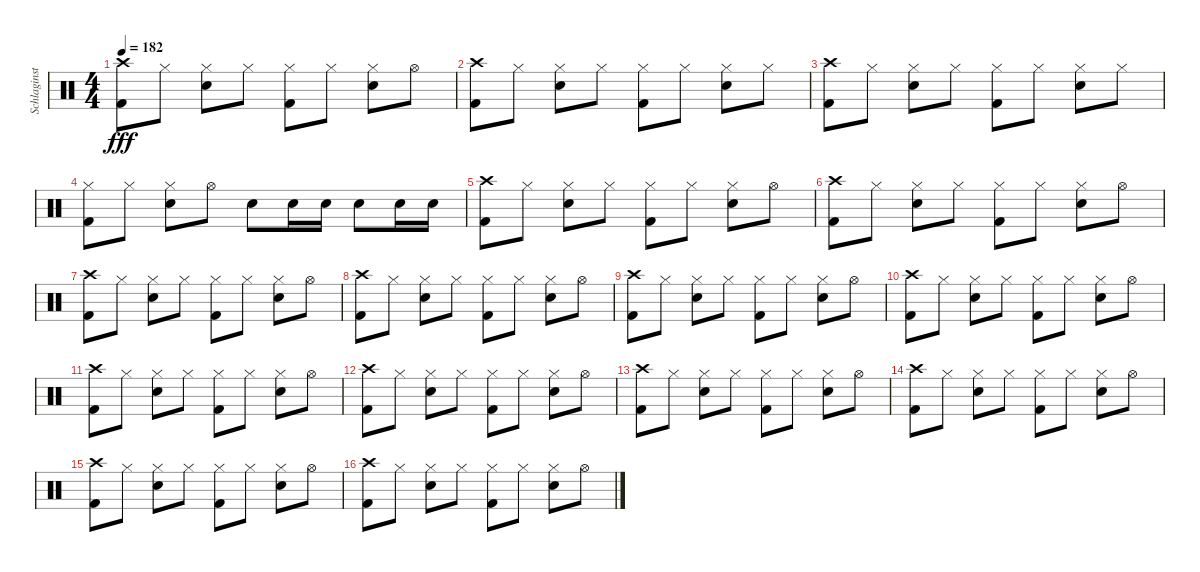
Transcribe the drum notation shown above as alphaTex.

\track ("Schlaginstrumente - Auswahl" "Schlaginst") {instrument percussion}
\staff {score}
\articulation defaults
\ts (4 4)
\tempo 182
\clef neutral
\ks c
("Kick (hit) 2" "Crash high (hit)").8{dy fff} "Hi-Hat (closed)".8 ("Snare (hit) 2" "Hi-Hat (closed)").8 "Hi-Hat (closed)".8 ("Kick (hit) 2" "Hi-Hat (closed)").8 "Hi-Hat (closed)".8 ("Snare (hit) 2" "Hi-Hat (closed)").8 "Hi-Hat (open)".8 |
("Kick (hit) 2" "Crash high (hit)").8 "Hi-Hat (closed)".8 ("Snare (hit) 2" "Hi-Hat (closed)").8 "Hi-Hat (closed)".8 ("Kick (hit) 2" "Hi-Hat (closed)").8 "Hi-Hat (closed)".8 ("Snare (hit) 2" "Hi-Hat (closed)").8 "Hi-Hat (closed)".8 |
("Kick (hit) 2" "Crash high (hit)").8 "Hi-Hat (closed)".8 ("Snare (hit) 2" "Hi-Hat (closed)").8 "Hi-Hat (closed)".8 ("Kick (hit) 2" "Hi-Hat (closed)").8 "Hi-Hat (closed)".8 ("Snare (hit) 2" "Hi-Hat (closed)").8 "Hi-Hat (closed)".8 |
("Kick (hit) 2" "Hi-Hat (closed)").8 "Hi-Hat (closed)".8 ("Snare (hit) 2" "Hi-Hat (closed)").8 "Hi-Hat (open)".8 "Snare (hit) 2".8 "Snare (hit) 2".16 "Snare (hit) 2".16 "Snare (hit) 2".8 "Snare (hit) 2".16 "Snare (hit) 2".16 |
("Kick (hit) 2" "Crash high (hit)").8 "Hi-Hat (closed)".8 ("Snare (hit) 2" "Hi-Hat (closed)").8 "Hi-Hat (closed)".8 ("Kick (hit) 2" "Hi-Hat (closed)").8 "Hi-Hat (closed)".8 ("Snare (hit) 2" "Hi-Hat (closed)").8 "Hi-Hat (open)".8 |
("Kick (hit) 2" "Crash high (hit)").8 "Hi-Hat (closed)".8 ("Snare (hit) 2" "Hi-Hat (closed)").8 "Hi-Hat (closed)".8 ("Kick (hit) 2" "Hi-Hat (closed)").8 "Hi-Hat (closed)".8 ("Snare (hit) 2" "Hi-Hat (closed)").8 "Hi-Hat (open)".8 |
("Kick (hit) 2" "Crash high (hit)").8 "Hi-Hat (closed)".8 ("Snare (hit) 2" "Hi-Hat (closed)").8 "Hi-Hat (closed)".8 ("Kick (hit) 2" "Hi-Hat (closed)").8 "Hi-Hat (closed)".8 ("Snare (hit) 2" "Hi-Hat (closed)").8 "Hi-Hat (open)".8 |
("Kick (hit) 2" "Crash high (hit)").8 "Hi-Hat (closed)".8 ("Snare (hit) 2" "Hi-Hat (closed)").8 "Hi-Hat (closed)".8 ("Kick (hit) 2" "Hi-Hat (closed)").8 "Hi-Hat (closed)".8 ("Snare (hit) 2" "Hi-Hat (closed)").8 "Hi-Hat (open)".8 |
("Kick (hit) 2" "Crash high (hit)").8 "Hi-Hat (closed)".8 ("Snare (hit) 2" "Hi-Hat (closed)").8 "Hi-Hat (closed)".8 ("Kick (hit) 2" "Hi-Hat (closed)").8 "Hi-Hat (closed)".8 ("Snare (hit) 2" "Hi-Hat (closed)").8 "Hi-Hat (open)".8 |
("Kick (hit) 2" "Crash high (hit)").8 "Hi-Hat (closed)".8 ("Snare (hit) 2" "Hi-Hat (closed)").8 "Hi-Hat (closed)".8 ("Kick (hit) 2" "Hi-Hat (closed)").8 "Hi-Hat (closed)".8 ("Snare (hit) 2" "Hi-Hat (closed)").8 "Hi-Hat (open)".8 |
("Kick (hit) 2" "Crash high (hit)").8 "Hi-Hat (closed)".8 ("Snare (hit) 2" "Hi-Hat (closed)").8 "Hi-Hat (closed)".8 ("Kick (hit) 2" "Hi-Hat (closed)").8 "Hi-Hat (closed)".8 ("Snare (hit) 2" "Hi-Hat (closed)").8 "Hi-Hat (open)".8 |
("Kick (hit) 2" "Crash high (hit)").8 "Hi-Hat (closed)".8 ("Snare (hit) 2" "Hi-Hat (closed)").8 "Hi-Hat (closed)".8 ("Kick (hit) 2" "Hi-Hat (closed)").8 "Hi-Hat (closed)".8 ("Snare (hit) 2" "Hi-Hat (closed)").8 "Hi-Hat (open)".8 |
("Kick (hit) 2" "Crash high (hit)").8 "Hi-Hat (closed)".8 ("Snare (hit) 2" "Hi-Hat (closed)").8 "Hi-Hat (closed)".8 ("Kick (hit) 2" "Hi-Hat (closed)").8 "Hi-Hat (closed)".8 ("Snare (hit) 2" "Hi-Hat (closed)").8 "Hi-Hat (open)".8 |
("Kick (hit) 2" "Crash high (hit)").8 "Hi-Hat (closed)".8 ("Snare (hit) 2" "Hi-Hat (closed)").8 "Hi-Hat (closed)".8 ("Kick (hit) 2" "Hi-Hat (closed)").8 "Hi-Hat (closed)".8 ("Snare (hit) 2" "Hi-Hat (closed)").8 "Hi-Hat (open)".8 |
("Kick (hit) 2" "Crash high (hit)").8 "Hi-Hat (closed)".8 ("Snare (hit) 2" "Hi-Hat (closed)").8 "Hi-Hat (closed)".8 ("Kick (hit) 2" "Hi-Hat (closed)").8 "Hi-Hat (closed)".8 ("Snare (hit) 2" "Hi-Hat (closed)").8 "Hi-Hat (open)".8 |
("Kick (hit) 2" "Crash high (hit)").8 "Hi-Hat (closed)".8 ("Snare (hit) 2" "Hi-Hat (closed)").8 "Hi-Hat (closed)".8 ("Kick (hit) 2" "Hi-Hat (closed)").8 "Hi-Hat (closed)".8 ("Snare (hit) 2" "Hi-Hat (closed)").8 "Hi-Hat (open)".8
